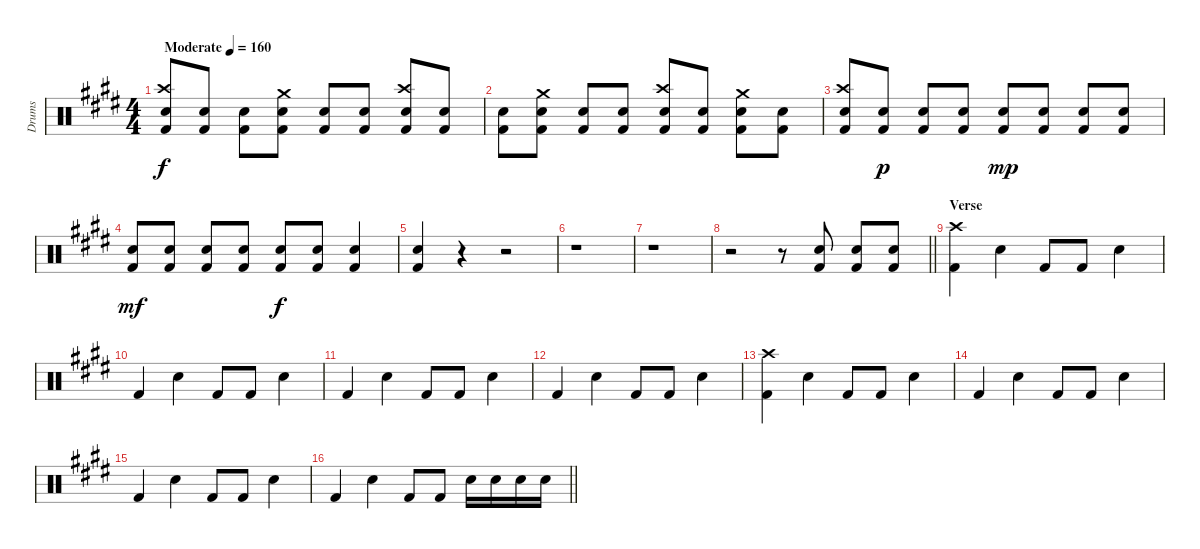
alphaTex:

\track ("Drums" "Drums") {instrument percussion}
\staff {score}
\articulation defaults
\ts (4 4)
\tempo (160 "Moderate")
\clef neutral
\ks e
("Kick (hit) 2" "Crash high (hit)" "Snare (hit) 2").8{dy f} ("Kick (hit) 2" "Snare (hit) 2").8 ("Kick (hit) 2" "Snare (hit) 2").8 ("Kick (hit) 2" "Crash medium (hit)" "Snare (hit) 2").8 ("Kick (hit) 2" "Snare (hit) 2").8 ("Kick (hit) 2" "Snare (hit) 2").8 ("Kick (hit) 2" "Crash high (hit)" "Snare (hit) 2").8 ("Kick (hit) 2" "Snare (hit) 2").8 |
("Kick (hit) 2" "Snare (hit) 2").8 ("Kick (hit) 2" "Crash medium (hit)" "Snare (hit) 2").8 ("Kick (hit) 2" "Snare (hit) 2").8 ("Kick (hit) 2" "Snare (hit) 2").8 ("Kick (hit) 2" "Crash high (hit)" "Snare (hit) 2").8 ("Kick (hit) 2" "Snare (hit) 2").8 ("Kick (hit) 2" "Crash medium (hit)" "Snare (hit) 2").8 ("Kick (hit) 2" "Snare (hit) 2").8 |
("Kick (hit) 2" "Crash high (hit)" "Snare (hit) 2").8 ("Kick (hit) 2" "Snare (hit) 2").8{dy p} ("Kick (hit) 2" "Snare (hit) 2").8 ("Kick (hit) 2" "Snare (hit) 2").8 ("Kick (hit) 2" "Snare (hit) 2").8{dy mp} ("Kick (hit) 2" "Snare (hit) 2").8 ("Kick (hit) 2" "Snare (hit) 2").8 ("Kick (hit) 2" "Snare (hit) 2").8 |
("Kick (hit) 2" "Snare (hit) 2").8{dy mf} ("Kick (hit) 2" "Snare (hit) 2").8 ("Kick (hit) 2" "Snare (hit) 2").8 ("Kick (hit) 2" "Snare (hit) 2").8 ("Kick (hit) 2" "Snare (hit) 2").8{dy f} ("Kick (hit) 2" "Snare (hit) 2").8 ("Kick (hit) 2" "Snare (hit) 2").4 |
("Kick (hit) 2" "Snare (hit) 2").4 r.4 r.2 |
r.1 |
r.1 |
\barLineRight lightlight
r.2 r.8 ("Kick (hit) 2" "Snare (hit) 2").8 ("Kick (hit) 2" "Snare (hit) 2").8 ("Kick (hit) 2" "Snare (hit) 2").8 |
\section ("" "Verse")
("Kick (hit) 2" "Crash high (hit)").4 "Snare (hit) 2".4 "Kick (hit) 2".8 "Kick (hit) 2".8 "Snare (hit) 2".4 |
"Kick (hit) 2".4 "Snare (hit) 2".4 "Kick (hit) 2".8 "Kick (hit) 2".8 "Snare (hit) 2".4 |
"Kick (hit) 2".4 "Snare (hit) 2".4 "Kick (hit) 2".8 "Kick (hit) 2".8 "Snare (hit) 2".4 |
"Kick (hit) 2".4 "Snare (hit) 2".4 "Kick (hit) 2".8 "Kick (hit) 2".8 "Snare (hit) 2".4 |
("Kick (hit) 2" "Crash high (hit)").4 "Snare (hit) 2".4 "Kick (hit) 2".8 "Kick (hit) 2".8 "Snare (hit) 2".4 |
"Kick (hit) 2".4 "Snare (hit) 2".4 "Kick (hit) 2".8 "Kick (hit) 2".8 "Snare (hit) 2".4 |
"Kick (hit) 2".4 "Snare (hit) 2".4 "Kick (hit) 2".8 "Kick (hit) 2".8 "Snare (hit) 2".4 |
\barLineRight lightlight "Kick (hit) 2".4 "Snare (hit) 2".4 "Kick (hit) 2".8 "Kick (hit) 2".8 "Snare (hit) 2".16 "Snare (hit) 2".16 "Snare (hit) 2".16 "Snare (hit) 2".16
